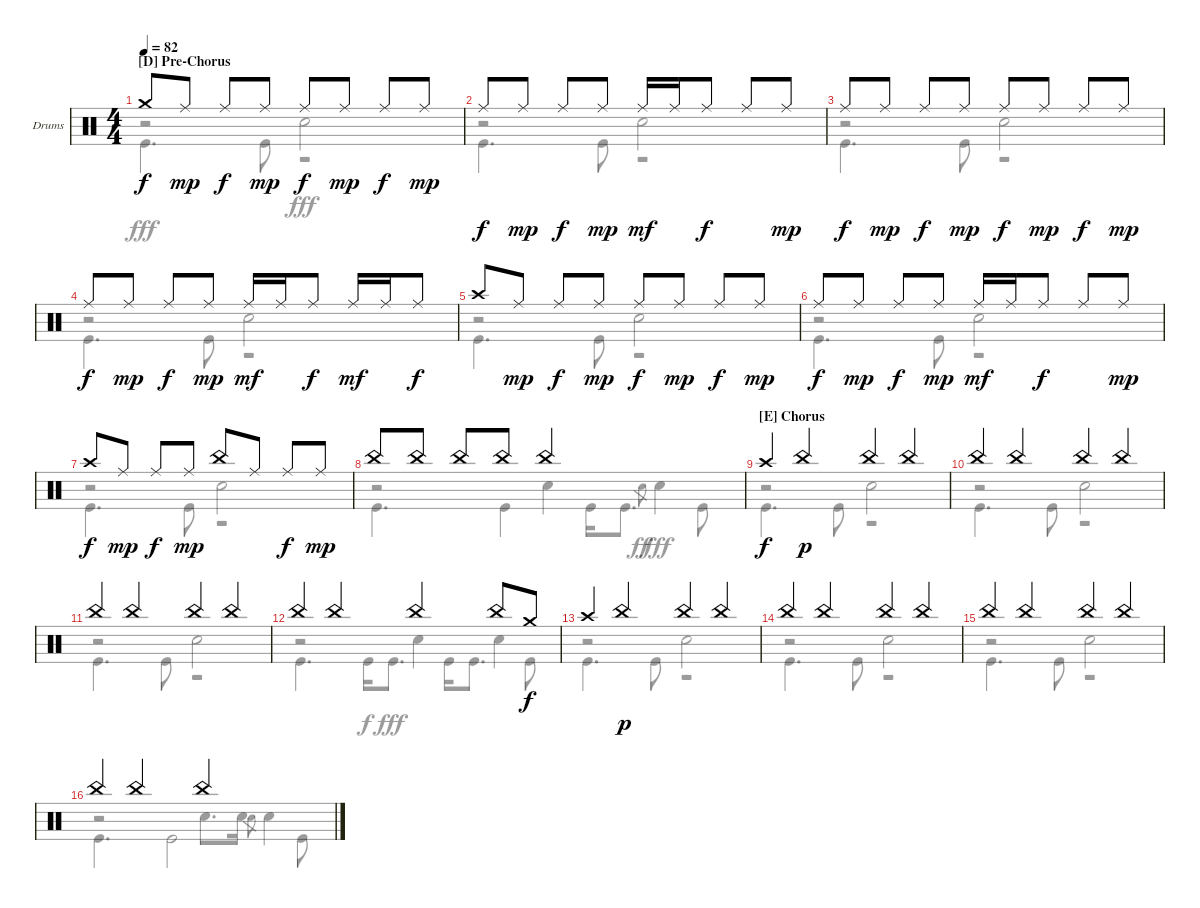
\defaultSystemsLayout 4
\bracketExtendMode groupsimilarinstruments
\firstSystemTrackNameOrientation horizontal
\otherSystemsTrackNameOrientation horizontal
\track ("Drumkit" "Drums") {instrument percussion}
\staff {score}
\articulation defaults
\voice
\ts (4 4)
\section ("D" "Pre-Chorus")
\tempo 82
\clef neutral
\ks c "Crash medium (hit)".8{dy f} "Ride (middle)".8{dy mp} "Ride (middle)".8{dy f} "Ride (middle)".8{dy mp} "Ride (middle)".8{dy f} "Ride (middle)".8{dy mp} "Ride (middle)".8{dy f} "Ride (middle)".8{dy mp}
|
"Ride (middle)".8{dy f} "Ride (middle)".8{dy mp} "Ride (middle)".8{dy f} "Ride (middle)".8{dy mp} "Ride (middle)".16{dy mf} "Ride (middle)".16 "Ride (middle)".8{dy f} "Ride (middle)".8 "Ride (middle)".8{dy mp} |
"Ride (middle)".8{dy f} "Ride (middle)".8{dy mp} "Ride (middle)".8{dy f} "Ride (middle)".8{dy mp} "Ride (middle)".8{dy f} "Ride (middle)".8{dy mp} "Ride (middle)".8{dy f} "Ride (middle)".8{dy mp} |
"Ride (middle)".8{dy f} "Ride (middle)".8{dy mp} "Ride (middle)".8{dy f} "Ride (middle)".8{dy mp} "Ride (middle)".16{dy mf} "Ride (middle)".16 "Ride (middle)".8{dy f} "Ride (middle)".16{dy mf} "Ride (middle)".16 "Ride (middle)".8{dy f} |
"Crash high (hit)".8 "Ride (middle)".8{dy mp} "Ride (middle)".8{dy f} "Ride (middle)".8{dy mp} "Ride (middle)".8{dy f} "Ride (middle)".8{dy mp} "Ride (middle)".8{dy f} "Ride (middle)".8{dy mp} |
"Ride (middle)".8{dy f} "Ride (middle)".8{dy mp} "Ride (middle)".8{dy f} "Ride (middle)".8{dy mp} "Ride (middle)".16{dy mf} "Ride (middle)".16 "Ride (middle)".8{dy f} "Ride (middle)".8 "Ride (middle)".8{dy mp} |
"Crash high (hit)".8{dy f} "Ride (middle)".8{dy mp} "Ride (middle)".8{dy f} "Ride (middle)".8{dy mp} "China (hit)".8 "Ride (middle)".8 "Ride (middle)".8{dy f} "Ride (middle)".8{dy mp} |
"China (hit)".8 "China (hit)".8 "China (hit)".8 "China (hit)".8 "China (hit)".2 |
\section ("E" "Chorus")
"Crash high (hit)".4{dy f} "China (hit)".4{dy p} "China (hit)".4 "China (hit)".4 |
"China (hit)".4 "China (hit)".4 "China (hit)".4 "China (hit)".4 |
"China (hit)".4 "China (hit)".4 "China (hit)".4 "China (hit)".4 |
"China (hit)".4 "China (hit)".4 "China (hit)".4 "China (hit)".8 "Crash medium (hit)".8{dy f} |
"Crash high (hit)".4 "China (hit)".4{dy p} "China (hit)".4 "China (hit)".4 |
"China (hit)".4 "China (hit)".4 "China (hit)".4 "China (hit)".4 |
"China (hit)".4 "China (hit)".4 "China (hit)".4 "China (hit)".4 |
"China (hit)".4 "China (hit)".4 "China (hit)".2
\voice
\clef neutral
\ottava regular
\simile none
\ks c
r.2{dy fff} "Snare (hit) 2".2 |
r.2 "Snare (hit) 2".2 |
r.2 "Snare (hit) 2".2 |
r.2 "Snare (hit) 2".2 |
r.2 "Snare (hit) 2".2 |
r.2 "Snare (hit) 2".2 |
r.2 "Snare (hit) 2".2 |
r.2 "Snare (hit) 2".4 "Snare (hit) 2".8{gr dy ff} "Snare (hit) 2".4{dy fff} |
r.2 "Snare (hit) 2".2 |
r.2 "Snare (hit) 2".2 |
r.2 "Snare (hit) 2".2 |
r.2 "Snare (hit) 2".4 "Snare (hit) 2".4 |
r.2 "Snare (hit) 2".2 |
r.2 "Snare (hit) 2".2 |
r.2 "Snare (hit) 2".2 |
r.2 "Snare (hit) 2".8{d} "Snare (hit) 2".16 "Snare (hit) 2".8{gr} "Snare (hit) 2".4
\voice
\clef neutral
\ottava regular
\simile none
\ks c "Kick (hit)".4{d dy fff} "Kick (hit)".8
r.2 |
"Kick (hit)".4{d} "Kick (hit)".8 r.2 |
"Kick (hit)".4{d} "Kick (hit)".8 r.2 |
"Kick (hit)".4{d} "Kick (hit)".8 r.2 |
"Kick (hit)".4{d} "Kick (hit)".8 r.2 |
"Kick (hit)".4{d} "Kick (hit)".8 r.2 |
"Kick (hit)".4{d} "Kick (hit)".8 r.2 |
"Kick (hit)".4{d} "Kick (hit)".4 "Kick (hit)".16 "Kick (hit)".8{d} "Kick (hit)".8 |
"Kick (hit)".4{d} "Kick (hit)".8 r.2 |
"Kick (hit)".4{d} "Kick (hit)".8 r.2 |
"Kick (hit)".4{d} "Kick (hit)".8 r.2 |
"Kick (hit)".4{d} "Kick (hit)".16{dy f} "Kick (hit)".8{d dy fff} "Kick (hit)".16 "Kick (hit)".8{d} "Kick (hit)".8 |
"Kick (hit)".4{d} "Kick (hit)".8 r.2 |
"Kick (hit)".4{d} "Kick (hit)".8 r.2 |
"Kick (hit)".4{d} "Kick (hit)".8 r.2 |
"Kick (hit)".4{d} "Kick (hit)".2 "Kick (hit)".8
